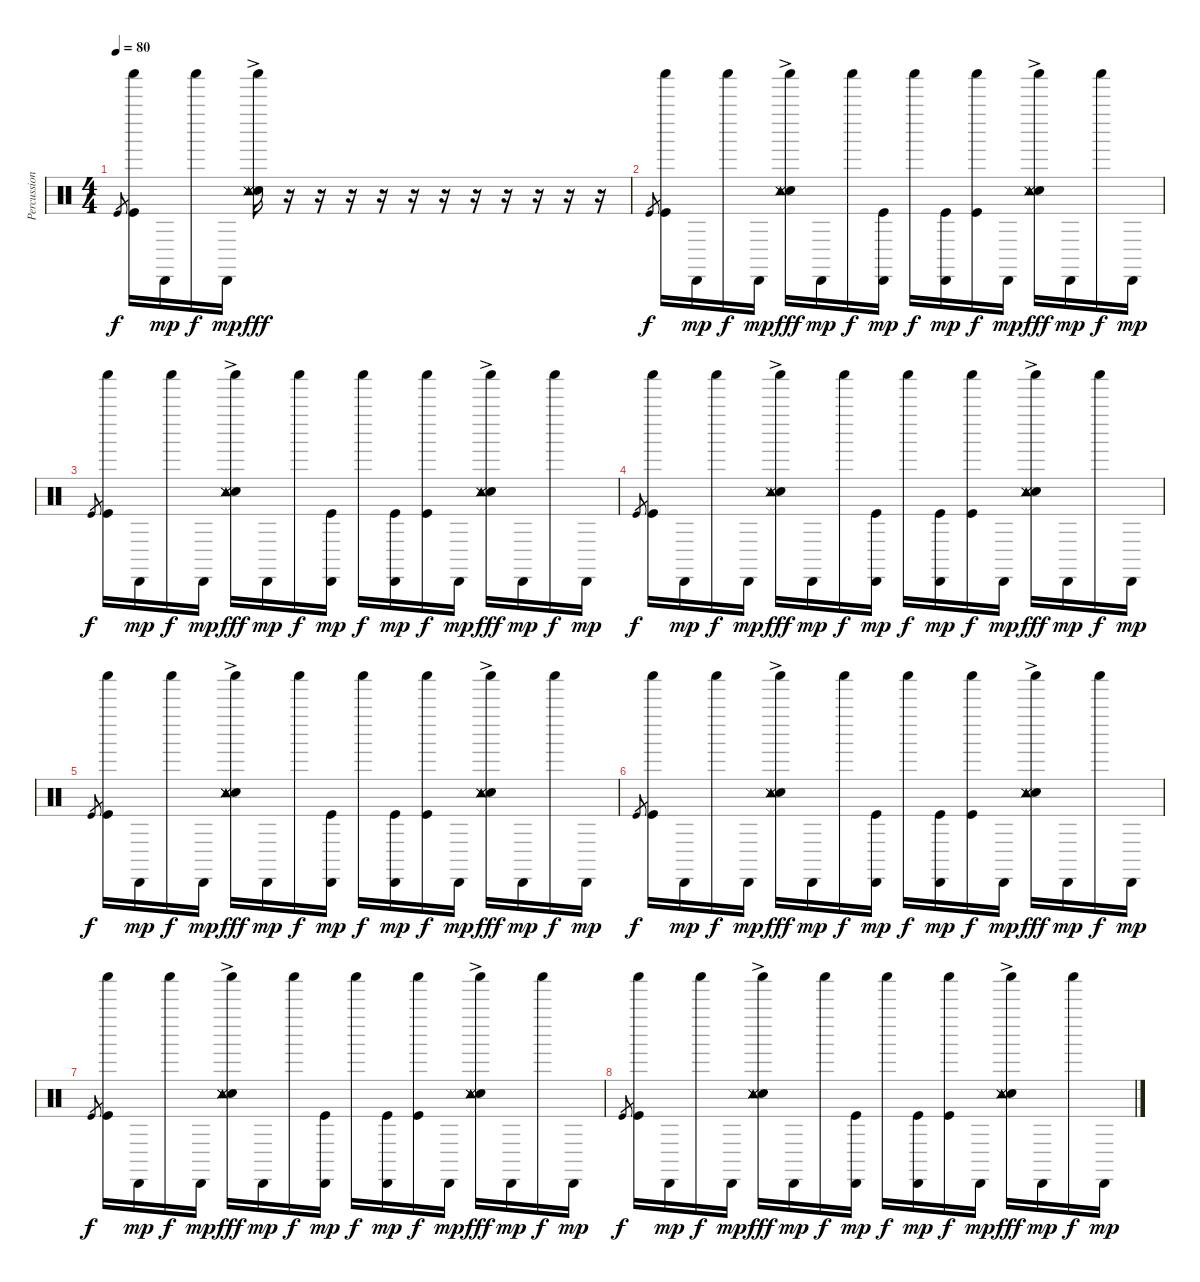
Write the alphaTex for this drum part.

\track ("Percussions" "Percussion") {instrument percussion}
\staff {score}
\articulation defaults
\ts (4 4)
\tempo 80
\clef neutral
\ks c "Kick (hit)".8{gr dy f}
("Shaker (hit)" "Kick (hit)").16 "Cabasa (hit)".16{dy mp} "Shaker (hit)".16{dy f} "Cabasa (hit)".16{dy mp} ("Shaker (hit)" "Electric Snare (hit)" "Tambourine (hit)"{ac} "Snare (side stick) 3" "Metronome (hit)").16{dy fff} r.16 r.16 r.16 r.16 r.16 r.16 r.16 r.16 r.16 r.16 r.16 |
"Kick (hit)".8{gr dy f} ("Shaker (hit)" "Kick (hit)").16 "Cabasa (hit)".16{dy mp} "Shaker (hit)".16{dy f} "Cabasa (hit)".16{dy mp} ("Shaker (hit)" "Electric Snare (hit)" "Tambourine (hit)"{ac} "Snare (side stick) 3" "Metronome (hit)").16{dy fff} "Cabasa (hit)".16{dy mp} "Shaker (hit)".16{dy f} ("Cabasa (hit)" "Kick (hit)").16{dy mp} "Shaker (hit)".16{dy f} ("Cabasa (hit)" "Kick (hit)").16{dy mp} ("Shaker (hit)" "Kick (hit)").16{dy f} "Cabasa (hit)".16{dy mp} ("Shaker (hit)" "Electric Snare (hit)" "Tambourine (hit)"{ac} "Snare (side stick) 3" "Metronome (hit)").16{dy fff} "Cabasa (hit)".16{dy mp} "Shaker (hit)".16{dy f} "Cabasa (hit)".16{dy mp} |
"Kick (hit)".8{gr dy f} ("Shaker (hit)" "Kick (hit)").16 "Cabasa (hit)".16{dy mp} "Shaker (hit)".16{dy f} "Cabasa (hit)".16{dy mp} ("Shaker (hit)" "Electric Snare (hit)" "Tambourine (hit)"{ac} "Snare (side stick) 3" "Metronome (hit)").16{dy fff} "Cabasa (hit)".16{dy mp} "Shaker (hit)".16{dy f} ("Cabasa (hit)" "Kick (hit)").16{dy mp} "Shaker (hit)".16{dy f} ("Cabasa (hit)" "Kick (hit)").16{dy mp} ("Shaker (hit)" "Kick (hit)").16{dy f} "Cabasa (hit)".16{dy mp} ("Shaker (hit)" "Electric Snare (hit)" "Tambourine (hit)"{ac} "Snare (side stick) 3" "Metronome (hit)").16{dy fff} "Cabasa (hit)".16{dy mp} "Shaker (hit)".16{dy f} "Cabasa (hit)".16{dy mp} |
"Kick (hit)".8{gr dy f} ("Shaker (hit)" "Kick (hit)").16 "Cabasa (hit)".16{dy mp} "Shaker (hit)".16{dy f} "Cabasa (hit)".16{dy mp} ("Shaker (hit)" "Electric Snare (hit)" "Tambourine (hit)"{ac} "Snare (side stick) 3" "Metronome (hit)").16{dy fff} "Cabasa (hit)".16{dy mp} "Shaker (hit)".16{dy f} ("Cabasa (hit)" "Kick (hit)").16{dy mp} "Shaker (hit)".16{dy f} ("Cabasa (hit)" "Kick (hit)").16{dy mp} ("Shaker (hit)" "Kick (hit)").16{dy f} "Cabasa (hit)".16{dy mp} ("Shaker (hit)" "Electric Snare (hit)" "Tambourine (hit)"{ac} "Snare (side stick) 3" "Metronome (hit)").16{dy fff} "Cabasa (hit)".16{dy mp} "Shaker (hit)".16{dy f} "Cabasa (hit)".16{dy mp} |
"Kick (hit)".8{gr dy f} ("Shaker (hit)" "Kick (hit)").16 "Cabasa (hit)".16{dy mp} "Shaker (hit)".16{dy f} "Cabasa (hit)".16{dy mp} ("Shaker (hit)" "Electric Snare (hit)" "Tambourine (hit)"{ac} "Snare (side stick) 3" "Metronome (hit)").16{dy fff} "Cabasa (hit)".16{dy mp} "Shaker (hit)".16{dy f} ("Cabasa (hit)" "Kick (hit)").16{dy mp} "Shaker (hit)".16{dy f} ("Cabasa (hit)" "Kick (hit)").16{dy mp} ("Shaker (hit)" "Kick (hit)").16{dy f} "Cabasa (hit)".16{dy mp} ("Shaker (hit)" "Electric Snare (hit)" "Tambourine (hit)"{ac} "Snare (side stick) 3" "Metronome (hit)").16{dy fff} "Cabasa (hit)".16{dy mp} "Shaker (hit)".16{dy f} "Cabasa (hit)".16{dy mp} |
"Kick (hit)".8{gr dy f} ("Shaker (hit)" "Kick (hit)").16 "Cabasa (hit)".16{dy mp} "Shaker (hit)".16{dy f} "Cabasa (hit)".16{dy mp} ("Shaker (hit)" "Electric Snare (hit)" "Tambourine (hit)"{ac} "Snare (side stick) 3" "Metronome (hit)").16{dy fff} "Cabasa (hit)".16{dy mp} "Shaker (hit)".16{dy f} ("Cabasa (hit)" "Kick (hit)").16{dy mp} "Shaker (hit)".16{dy f} ("Cabasa (hit)" "Kick (hit)").16{dy mp} ("Shaker (hit)" "Kick (hit)").16{dy f} "Cabasa (hit)".16{dy mp} ("Shaker (hit)" "Electric Snare (hit)" "Tambourine (hit)"{ac} "Snare (side stick) 3" "Metronome (hit)").16{dy fff} "Cabasa (hit)".16{dy mp} "Shaker (hit)".16{dy f} "Cabasa (hit)".16{dy mp} |
"Kick (hit)".8{gr dy f} ("Shaker (hit)" "Kick (hit)").16 "Cabasa (hit)".16{dy mp} "Shaker (hit)".16{dy f} "Cabasa (hit)".16{dy mp} ("Shaker (hit)" "Electric Snare (hit)" "Tambourine (hit)"{ac} "Snare (side stick) 3" "Metronome (hit)").16{dy fff} "Cabasa (hit)".16{dy mp} "Shaker (hit)".16{dy f} ("Cabasa (hit)" "Kick (hit)").16{dy mp} "Shaker (hit)".16{dy f} ("Cabasa (hit)" "Kick (hit)").16{dy mp} ("Shaker (hit)" "Kick (hit)").16{dy f} "Cabasa (hit)".16{dy mp} ("Shaker (hit)" "Electric Snare (hit)" "Tambourine (hit)"{ac} "Snare (side stick) 3" "Metronome (hit)").16{dy fff} "Cabasa (hit)".16{dy mp} "Shaker (hit)".16{dy f} "Cabasa (hit)".16{dy mp} |
"Kick (hit)".8{gr dy f} ("Shaker (hit)" "Kick (hit)").16 "Cabasa (hit)".16{dy mp} "Shaker (hit)".16{dy f} "Cabasa (hit)".16{dy mp} ("Shaker (hit)" "Electric Snare (hit)" "Tambourine (hit)"{ac} "Snare (side stick) 3" "Metronome (hit)").16{dy fff} "Cabasa (hit)".16{dy mp} "Shaker (hit)".16{dy f} ("Cabasa (hit)" "Kick (hit)").16{dy mp} "Shaker (hit)".16{dy f} ("Cabasa (hit)" "Kick (hit)").16{dy mp} ("Shaker (hit)" "Kick (hit)").16{dy f} "Cabasa (hit)".16{dy mp} ("Shaker (hit)" "Electric Snare (hit)" "Tambourine (hit)"{ac} "Snare (side stick) 3" "Metronome (hit)").16{dy fff} "Cabasa (hit)".16{dy mp} "Shaker (hit)".16{dy f} "Cabasa (hit)".16{dy mp}
